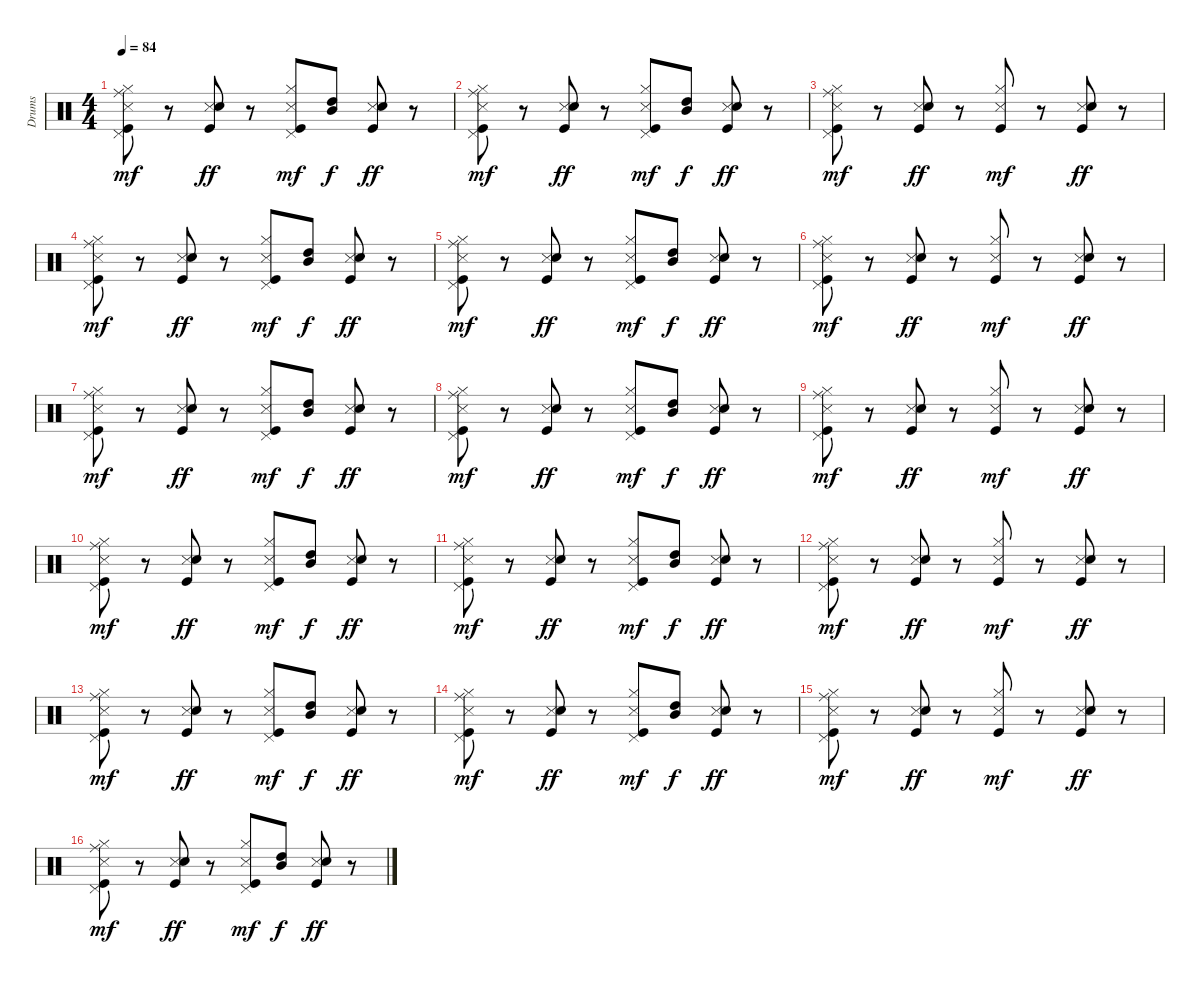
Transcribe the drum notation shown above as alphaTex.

\track ("Drums   " "Drums   ") {instrument percussion}
\staff {score}
\articulation defaults
\ts (4 4)
\tempo 84
\clef neutral
\ks c
("Ride (middle)" "Pedal Hi-Hat (hit)" "Kick (hit)" "Hi-Hat (closed)" "Snare (side stick) 3").8{dy mf} r.8 ("Kick (hit)" "Snare (side stick) 3" "Hand Clap (hit)").8{dy ff} r.8 ("Pedal Hi-Hat (hit)" "Kick (hit)" "Hi-Hat (closed)" "Snare (side stick) 3").8{dy mf} ("Mid Tom (hit)" "High Tom (hit)").8{dy f} ("Kick (hit)" "Snare (side stick) 3" "Hand Clap (hit)").8{dy ff} r.8 |
("Ride (middle)" "Pedal Hi-Hat (hit)" "Kick (hit)" "Hi-Hat (closed)" "Snare (side stick) 3").8{dy mf} r.8 ("Kick (hit)" "Snare (side stick) 3" "Hand Clap (hit)").8{dy ff} r.8 ("Pedal Hi-Hat (hit)" "Kick (hit)" "Hi-Hat (closed)" "Snare (side stick) 3").8{dy mf} ("Mid Tom (hit)" "High Tom (hit)").8{dy f} ("Kick (hit)" "Snare (side stick) 3" "Hand Clap (hit)").8{dy ff} r.8 |
("Ride (middle)" "Pedal Hi-Hat (hit)" "Kick (hit)" "Hi-Hat (closed)" "Snare (side stick) 3").8{dy mf} r.8 ("Kick (hit)" "Snare (side stick) 3" "Hand Clap (hit)").8{dy ff} r.8 ("Kick (hit)" "Hi-Hat (closed)" "Snare (side stick) 3").8{dy mf} r.8 ("Kick (hit)" "Snare (side stick) 3" "Hand Clap (hit)").8{dy ff} r.8 |
("Ride (middle)" "Pedal Hi-Hat (hit)" "Kick (hit)" "Hi-Hat (closed)" "Snare (side stick) 3").8{dy mf} r.8 ("Kick (hit)" "Snare (side stick) 3" "Hand Clap (hit)").8{dy ff} r.8 ("Pedal Hi-Hat (hit)" "Kick (hit)" "Hi-Hat (closed)" "Snare (side stick) 3").8{dy mf} ("Mid Tom (hit)" "High Tom (hit)").8{dy f} ("Kick (hit)" "Snare (side stick) 3" "Hand Clap (hit)").8{dy ff} r.8 |
("Ride (middle)" "Pedal Hi-Hat (hit)" "Kick (hit)" "Hi-Hat (closed)" "Snare (side stick) 3").8{dy mf} r.8 ("Kick (hit)" "Snare (side stick) 3" "Hand Clap (hit)").8{dy ff} r.8 ("Pedal Hi-Hat (hit)" "Kick (hit)" "Hi-Hat (closed)" "Snare (side stick) 3").8{dy mf} ("Mid Tom (hit)" "High Tom (hit)").8{dy f} ("Kick (hit)" "Snare (side stick) 3" "Hand Clap (hit)").8{dy ff} r.8 |
("Ride (middle)" "Pedal Hi-Hat (hit)" "Kick (hit)" "Hi-Hat (closed)" "Snare (side stick) 3").8{dy mf} r.8 ("Kick (hit)" "Snare (side stick) 3" "Hand Clap (hit)").8{dy ff} r.8 ("Kick (hit)" "Hi-Hat (closed)" "Snare (side stick) 3").8{dy mf} r.8 ("Kick (hit)" "Snare (side stick) 3" "Hand Clap (hit)").8{dy ff} r.8 |
("Ride (middle)" "Pedal Hi-Hat (hit)" "Kick (hit)" "Hi-Hat (closed)" "Snare (side stick) 3").8{dy mf} r.8 ("Kick (hit)" "Snare (side stick) 3" "Hand Clap (hit)").8{dy ff} r.8 ("Pedal Hi-Hat (hit)" "Kick (hit)" "Hi-Hat (closed)" "Snare (side stick) 3").8{dy mf} ("Mid Tom (hit)" "High Tom (hit)").8{dy f} ("Kick (hit)" "Snare (side stick) 3" "Hand Clap (hit)").8{dy ff} r.8 |
("Ride (middle)" "Pedal Hi-Hat (hit)" "Kick (hit)" "Hi-Hat (closed)" "Snare (side stick) 3").8{dy mf} r.8 ("Kick (hit)" "Snare (side stick) 3" "Hand Clap (hit)").8{dy ff} r.8 ("Pedal Hi-Hat (hit)" "Kick (hit)" "Hi-Hat (closed)" "Snare (side stick) 3").8{dy mf} ("Mid Tom (hit)" "High Tom (hit)").8{dy f} ("Kick (hit)" "Snare (side stick) 3" "Hand Clap (hit)").8{dy ff} r.8 |
("Ride (middle)" "Pedal Hi-Hat (hit)" "Kick (hit)" "Hi-Hat (closed)" "Snare (side stick) 3").8{dy mf} r.8 ("Kick (hit)" "Snare (side stick) 3" "Hand Clap (hit)").8{dy ff} r.8 ("Kick (hit)" "Hi-Hat (closed)" "Snare (side stick) 3").8{dy mf} r.8 ("Kick (hit)" "Snare (side stick) 3" "Hand Clap (hit)").8{dy ff} r.8 |
("Ride (middle)" "Pedal Hi-Hat (hit)" "Kick (hit)" "Hi-Hat (closed)" "Snare (side stick) 3").8{dy mf} r.8 ("Kick (hit)" "Snare (side stick) 3" "Hand Clap (hit)").8{dy ff} r.8 ("Pedal Hi-Hat (hit)" "Kick (hit)" "Hi-Hat (closed)" "Snare (side stick) 3").8{dy mf} ("Mid Tom (hit)" "High Tom (hit)").8{dy f} ("Kick (hit)" "Snare (side stick) 3" "Hand Clap (hit)").8{dy ff} r.8 |
("Ride (middle)" "Pedal Hi-Hat (hit)" "Kick (hit)" "Hi-Hat (closed)" "Snare (side stick) 3").8{dy mf} r.8 ("Kick (hit)" "Snare (side stick) 3" "Hand Clap (hit)").8{dy ff} r.8 ("Pedal Hi-Hat (hit)" "Kick (hit)" "Hi-Hat (closed)" "Snare (side stick) 3").8{dy mf} ("Mid Tom (hit)" "High Tom (hit)").8{dy f} ("Kick (hit)" "Snare (side stick) 3" "Hand Clap (hit)").8{dy ff} r.8 |
("Ride (middle)" "Pedal Hi-Hat (hit)" "Kick (hit)" "Hi-Hat (closed)" "Snare (side stick) 3").8{dy mf} r.8 ("Kick (hit)" "Snare (side stick) 3" "Hand Clap (hit)").8{dy ff} r.8 ("Kick (hit)" "Hi-Hat (closed)" "Snare (side stick) 3").8{dy mf} r.8 ("Kick (hit)" "Snare (side stick) 3" "Hand Clap (hit)").8{dy ff} r.8 |
("Ride (middle)" "Pedal Hi-Hat (hit)" "Kick (hit)" "Hi-Hat (closed)" "Snare (side stick) 3").8{dy mf} r.8 ("Kick (hit)" "Snare (side stick) 3" "Hand Clap (hit)").8{dy ff} r.8 ("Pedal Hi-Hat (hit)" "Kick (hit)" "Hi-Hat (closed)" "Snare (side stick) 3").8{dy mf} ("Mid Tom (hit)" "High Tom (hit)").8{dy f} ("Kick (hit)" "Snare (side stick) 3" "Hand Clap (hit)").8{dy ff} r.8 |
("Ride (middle)" "Pedal Hi-Hat (hit)" "Kick (hit)" "Hi-Hat (closed)" "Snare (side stick) 3").8{dy mf} r.8 ("Kick (hit)" "Snare (side stick) 3" "Hand Clap (hit)").8{dy ff} r.8 ("Pedal Hi-Hat (hit)" "Kick (hit)" "Hi-Hat (closed)" "Snare (side stick) 3").8{dy mf} ("Mid Tom (hit)" "High Tom (hit)").8{dy f} ("Kick (hit)" "Snare (side stick) 3" "Hand Clap (hit)").8{dy ff} r.8 |
("Ride (middle)" "Pedal Hi-Hat (hit)" "Kick (hit)" "Hi-Hat (closed)" "Snare (side stick) 3").8{dy mf} r.8 ("Kick (hit)" "Snare (side stick) 3" "Hand Clap (hit)").8{dy ff} r.8 ("Kick (hit)" "Hi-Hat (closed)" "Snare (side stick) 3").8{dy mf} r.8 ("Kick (hit)" "Snare (side stick) 3" "Hand Clap (hit)").8{dy ff} r.8 |
("Ride (middle)" "Pedal Hi-Hat (hit)" "Kick (hit)" "Hi-Hat (closed)" "Snare (side stick) 3").8{dy mf} r.8 ("Kick (hit)" "Snare (side stick) 3" "Hand Clap (hit)").8{dy ff} r.8 ("Pedal Hi-Hat (hit)" "Kick (hit)" "Hi-Hat (closed)" "Snare (side stick) 3").8{dy mf} ("Mid Tom (hit)" "High Tom (hit)").8{dy f} ("Kick (hit)" "Snare (side stick) 3" "Hand Clap (hit)").8{dy ff} r.8
